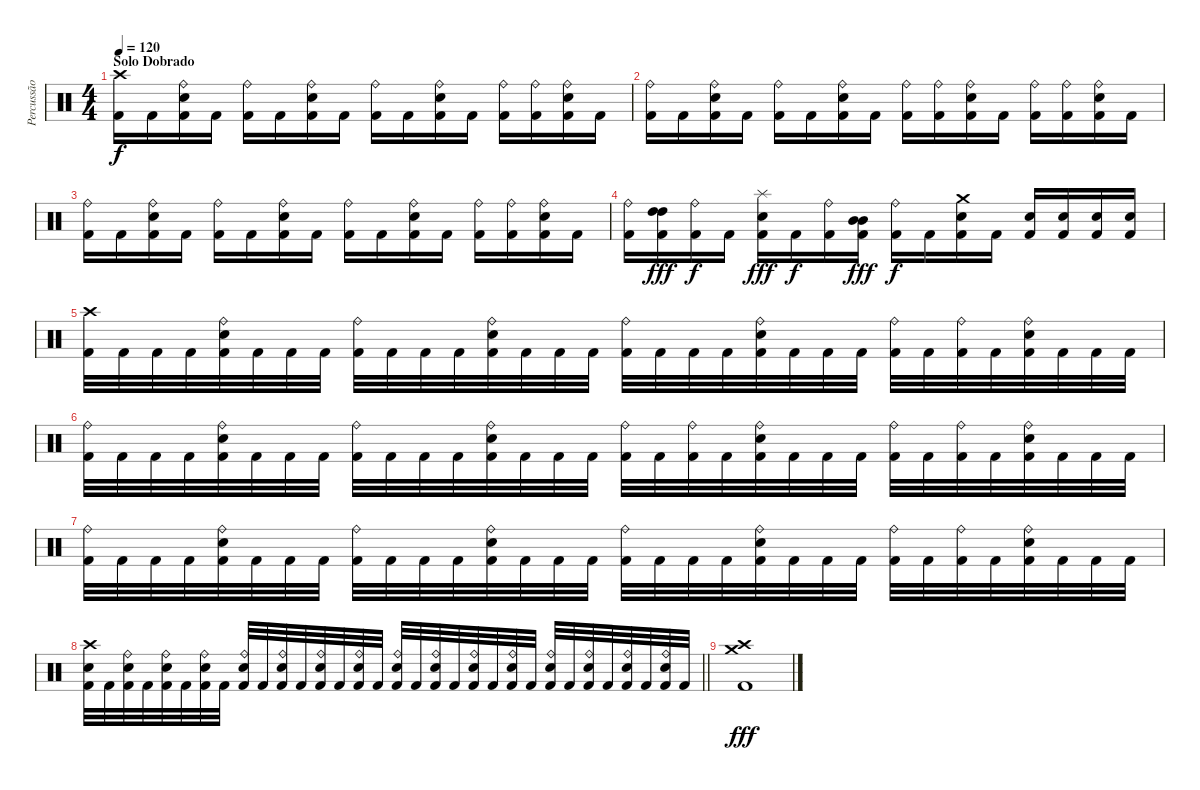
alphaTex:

\track ("Percussão" "Percussão") {instrument percussion}
\staff {score}
\articulation defaults
\ts (4 4)
\section ("" "Solo Dobrado")
\tempo 120
\clef neutral
\ks c
("Crash high (hit)" "Kick (hit) 2").16{dy f} "Kick (hit) 2".16 ("Ride (bell)" "Electric Snare (hit)" "Kick (hit) 2").16 "Kick (hit) 2".16 ("Ride (bell)" "Kick (hit) 2").16 "Kick (hit) 2".16 ("Ride (bell)" "Electric Snare (hit)" "Kick (hit) 2").16 "Kick (hit) 2".16 ("Ride (bell)" "Kick (hit) 2").16 "Kick (hit) 2".16 ("Ride (bell)" "Electric Snare (hit)" "Kick (hit) 2").16 "Kick (hit) 2".16 ("Ride (bell)" "Kick (hit) 2").16 ("Ride (bell)" "Kick (hit) 2").16 ("Ride (bell)" "Electric Snare (hit)" "Kick (hit) 2").16 "Kick (hit) 2".16 |
("Ride (bell)" "Kick (hit) 2").16 "Kick (hit) 2".16 ("Ride (bell)" "Electric Snare (hit)" "Kick (hit) 2").16 "Kick (hit) 2".16 ("Ride (bell)" "Kick (hit) 2").16 "Kick (hit) 2".16 ("Ride (bell)" "Electric Snare (hit)" "Kick (hit) 2").16 "Kick (hit) 2".16 ("Ride (bell)" "Kick (hit) 2").16 ("Ride (bell)" "Kick (hit) 2").16 ("Ride (bell)" "Electric Snare (hit)" "Kick (hit) 2").16 "Kick (hit) 2".16 ("Ride (bell)" "Kick (hit) 2").16 ("Ride (bell)" "Kick (hit) 2").16 ("Ride (bell)" "Electric Snare (hit)" "Kick (hit) 2").16 "Kick (hit) 2".16 |
("Ride (bell)" "Kick (hit) 2").16 "Kick (hit) 2".16 ("Ride (bell)" "Electric Snare (hit)" "Kick (hit) 2").16 "Kick (hit) 2".16 ("Ride (bell)" "Kick (hit) 2").16 "Kick (hit) 2".16 ("Ride (bell)" "Electric Snare (hit)" "Kick (hit) 2").16 "Kick (hit) 2".16 ("Ride (bell)" "Kick (hit) 2").16 "Kick (hit) 2".16 ("Ride (bell)" "Electric Snare (hit)" "Kick (hit) 2").16 "Kick (hit) 2".16 ("Ride (bell)" "Kick (hit) 2").16 ("Ride (bell)" "Kick (hit) 2").16 ("Ride (bell)" "Electric Snare (hit)" "Kick (hit) 2").16 "Kick (hit) 2".16 |
("Ride (bell)" "Kick (hit) 2").16 ("High Tom (hit)" "High Tom (hit)" "Kick (hit) 2").16{dy fff} ("Ride (bell)" "Kick (hit) 2").16{dy f} "Kick (hit) 2".16 ("Splash (hit)" "Electric Snare (hit)" "Kick (hit) 2").16{dy fff} "Kick (hit) 2".16{dy f} ("Ride (bell)" "Kick (hit) 2").16 ("Mid Tom (hit)" "Mid Tom (hit)" "Kick (hit) 2").16{dy fff} ("Ride (bell)" "Kick (hit) 2").16{dy f} "Kick (hit) 2".16 ("Crash medium (hit)" "Electric Snare (hit)" "Kick (hit) 2").16 "Kick (hit) 2".16 ("Electric Snare (hit)" "Kick (hit) 2").16 ("Electric Snare (hit)" "Kick (hit) 2").16 ("Electric Snare (hit)" "Kick (hit) 2").16 ("Electric Snare (hit)" "Kick (hit) 2").16 |
("Crash high (hit)" "Kick (hit) 2").32 "Kick (hit) 2".32 "Kick (hit) 2".32 "Kick (hit) 2".32 ("Ride (bell)" "Electric Snare (hit)" "Kick (hit) 2").32 "Kick (hit) 2".32 "Kick (hit) 2".32 "Kick (hit) 2".32 ("Ride (bell)" "Kick (hit) 2").32 "Kick (hit) 2".32 "Kick (hit) 2".32 "Kick (hit) 2".32 ("Ride (bell)" "Electric Snare (hit)" "Kick (hit) 2").32 "Kick (hit) 2".32 "Kick (hit) 2".32 "Kick (hit) 2".32 ("Ride (bell)" "Kick (hit) 2").32 "Kick (hit) 2".32 "Kick (hit) 2".32 "Kick (hit) 2".32 ("Ride (bell)" "Electric Snare (hit)" "Kick (hit) 2").32 "Kick (hit) 2".32 "Kick (hit) 2".32 "Kick (hit) 2".32 ("Ride (bell)" "Kick (hit) 2").32 "Kick (hit) 2".32 ("Ride (bell)" "Kick (hit) 2").32 "Kick (hit) 2".32 ("Ride (bell)" "Electric Snare (hit)" "Kick (hit) 2").32 "Kick (hit) 2".32 "Kick (hit) 2".32 "Kick (hit) 2".32 |
("Ride (bell)" "Kick (hit) 2").32 "Kick (hit) 2".32 "Kick (hit) 2".32 "Kick (hit) 2".32 ("Ride (bell)" "Electric Snare (hit)" "Kick (hit) 2").32 "Kick (hit) 2".32 "Kick (hit) 2".32 "Kick (hit) 2".32 ("Ride (bell)" "Kick (hit) 2").32 "Kick (hit) 2".32 "Kick (hit) 2".32 "Kick (hit) 2".32 ("Ride (bell)" "Electric Snare (hit)" "Kick (hit) 2").32 "Kick (hit) 2".32 "Kick (hit) 2".32 "Kick (hit) 2".32 ("Ride (bell)" "Kick (hit) 2").32 "Kick (hit) 2".32 ("Ride (bell)" "Kick (hit) 2").32 "Kick (hit) 2".32 ("Ride (bell)" "Electric Snare (hit)" "Kick (hit) 2").32 "Kick (hit) 2".32 "Kick (hit) 2".32 "Kick (hit) 2".32 ("Ride (bell)" "Kick (hit) 2").32 "Kick (hit) 2".32 ("Ride (bell)" "Kick (hit) 2").32 "Kick (hit) 2".32 ("Ride (bell)" "Electric Snare (hit)" "Kick (hit) 2").32 "Kick (hit) 2".32 "Kick (hit) 2".32 "Kick (hit) 2".32 |
("Ride (bell)" "Kick (hit) 2").32 "Kick (hit) 2".32 "Kick (hit) 2".32 "Kick (hit) 2".32 ("Ride (bell)" "Electric Snare (hit)" "Kick (hit) 2").32 "Kick (hit) 2".32 "Kick (hit) 2".32 "Kick (hit) 2".32 ("Ride (bell)" "Kick (hit) 2").32 "Kick (hit) 2".32 "Kick (hit) 2".32 "Kick (hit) 2".32 ("Ride (bell)" "Electric Snare (hit)" "Kick (hit) 2").32 "Kick (hit) 2".32 "Kick (hit) 2".32 "Kick (hit) 2".32 ("Ride (bell)" "Kick (hit) 2").32 "Kick (hit) 2".32 "Kick (hit) 2".32 "Kick (hit) 2".32 ("Ride (bell)" "Electric Snare (hit)" "Kick (hit) 2").32 "Kick (hit) 2".32 "Kick (hit) 2".32 "Kick (hit) 2".32 ("Ride (bell)" "Kick (hit) 2").32 "Kick (hit) 2".32 ("Ride (bell)" "Kick (hit) 2").32 "Kick (hit) 2".32 ("Ride (bell)" "Electric Snare (hit)" "Kick (hit) 2").32 "Kick (hit) 2".32 "Kick (hit) 2".32 "Kick (hit) 2".32 |
\barLineRight lightlight
("Crash high (hit)" "Electric Snare (hit)" "Kick (hit) 2").32 "Kick (hit) 2".32 ("Ride (bell)" "Electric Snare (hit)" "Kick (hit) 2").32 "Kick (hit) 2".32 ("Ride (bell)" "Electric Snare (hit)" "Kick (hit) 2").32 "Kick (hit) 2".32 ("Ride (bell)" "Electric Snare (hit)" "Kick (hit) 2").32 "Kick (hit) 2".32 ("Ride (bell)" "Electric Snare (hit)" "Kick (hit) 2").32 "Kick (hit) 2".32 ("Ride (bell)" "Electric Snare (hit)" "Kick (hit) 2").32 "Kick (hit) 2".32 ("Ride (bell)" "Electric Snare (hit)" "Kick (hit) 2").32 "Kick (hit) 2".32 ("Ride (bell)" "Electric Snare (hit)" "Kick (hit) 2").32 "Kick (hit) 2".32 ("Ride (bell)" "Electric Snare (hit)" "Kick (hit) 2").32 "Kick (hit) 2".32 ("Ride (bell)" "Electric Snare (hit)" "Kick (hit) 2").32 "Kick (hit) 2".32 ("Ride (bell)" "Electric Snare (hit)" "Kick (hit) 2").32 "Kick (hit) 2".32 ("Ride (bell)" "Electric Snare (hit)" "Kick (hit) 2").32 "Kick (hit) 2".32 ("Ride (bell)" "Electric Snare (hit)" "Kick (hit) 2").32 "Kick (hit) 2".32 ("Ride (bell)" "Electric Snare (hit)" "Kick (hit) 2").32 "Kick (hit) 2".32 ("Ride (bell)" "Electric Snare (hit)" "Kick (hit) 2").32 "Kick (hit) 2".32 ("Ride (bell)" "Electric Snare (hit)" "Kick (hit) 2").32 "Kick (hit) 2".32 |
("Crash medium (hit)" "Crash high (hit)" "Kick (hit) 2").1{dy fff}
